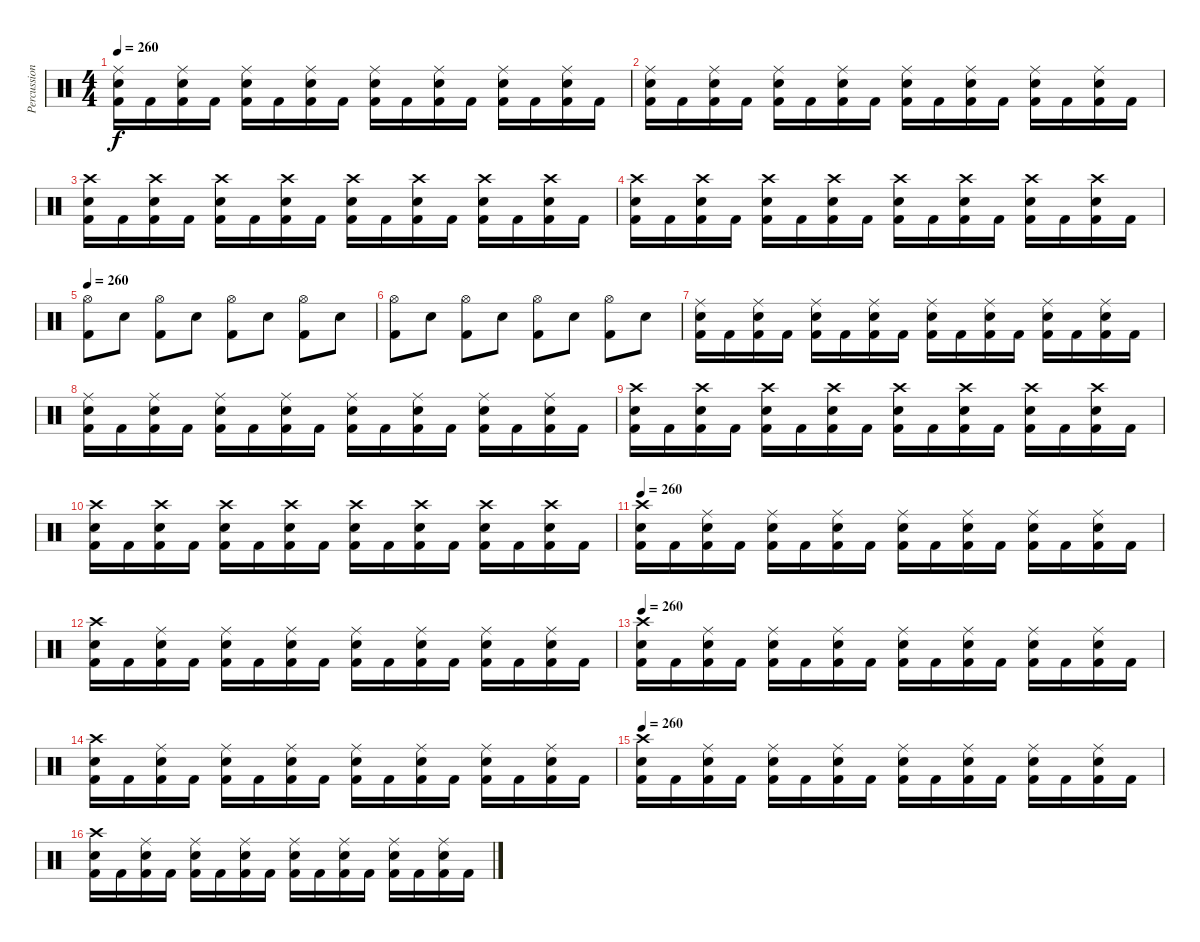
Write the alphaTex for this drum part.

\track ("Percussion" "Percussion") {instrument percussion}
\staff {score}
\articulation defaults
\ts (4 4)
\tempo 260
\clef neutral
\ks c
("Ride (middle)" "Electric Snare (hit)" "Kick (hit) 2").16{dy f} "Kick (hit) 2".16 ("Ride (middle)" "Electric Snare (hit)" "Kick (hit) 2").16 "Kick (hit) 2".16 ("Ride (middle)" "Electric Snare (hit)" "Kick (hit) 2").16 "Kick (hit) 2".16 ("Ride (middle)" "Electric Snare (hit)" "Kick (hit) 2").16 "Kick (hit) 2".16 ("Ride (middle)" "Electric Snare (hit)" "Kick (hit) 2").16 "Kick (hit) 2".16 ("Ride (middle)" "Electric Snare (hit)" "Kick (hit) 2").16 "Kick (hit) 2".16 ("Ride (middle)" "Electric Snare (hit)" "Kick (hit) 2").16 "Kick (hit) 2".16 ("Ride (middle)" "Electric Snare (hit)" "Kick (hit) 2").16 "Kick (hit) 2".16 |
("Ride (middle)" "Electric Snare (hit)" "Kick (hit) 2").16 "Kick (hit) 2".16 ("Ride (middle)" "Electric Snare (hit)" "Kick (hit) 2").16 "Kick (hit) 2".16 ("Ride (middle)" "Electric Snare (hit)" "Kick (hit) 2").16 "Kick (hit) 2".16 ("Ride (middle)" "Electric Snare (hit)" "Kick (hit) 2").16 "Kick (hit) 2".16 ("Ride (middle)" "Electric Snare (hit)" "Kick (hit) 2").16 "Kick (hit) 2".16 ("Ride (middle)" "Electric Snare (hit)" "Kick (hit) 2").16 "Kick (hit) 2".16 ("Ride (middle)" "Electric Snare (hit)" "Kick (hit) 2").16 "Kick (hit) 2".16 ("Ride (middle)" "Electric Snare (hit)" "Kick (hit) 2").16 "Kick (hit) 2".16 |
("Crash high (hit)" "Electric Snare (hit)" "Kick (hit) 2").16 "Kick (hit) 2".16 ("Crash high (hit)" "Electric Snare (hit)" "Kick (hit) 2").16 "Kick (hit) 2".16 ("Crash high (hit)" "Electric Snare (hit)" "Kick (hit) 2").16 "Kick (hit) 2".16 ("Crash high (hit)" "Electric Snare (hit)" "Kick (hit) 2").16 "Kick (hit) 2".16 ("Crash high (hit)" "Electric Snare (hit)" "Kick (hit) 2").16 "Kick (hit) 2".16 ("Crash high (hit)" "Electric Snare (hit)" "Kick (hit) 2").16 "Kick (hit) 2".16 ("Crash high (hit)" "Electric Snare (hit)" "Kick (hit) 2").16 "Kick (hit) 2".16 ("Crash high (hit)" "Electric Snare (hit)" "Kick (hit) 2").16 "Kick (hit) 2".16 |
("Crash high (hit)" "Electric Snare (hit)" "Kick (hit) 2").16 "Kick (hit) 2".16 ("Crash high (hit)" "Electric Snare (hit)" "Kick (hit) 2").16 "Kick (hit) 2".16 ("Crash high (hit)" "Electric Snare (hit)" "Kick (hit) 2").16 "Kick (hit) 2".16 ("Crash high (hit)" "Electric Snare (hit)" "Kick (hit) 2").16 "Kick (hit) 2".16 ("Crash high (hit)" "Electric Snare (hit)" "Kick (hit) 2").16 "Kick (hit) 2".16 ("Crash high (hit)" "Electric Snare (hit)" "Kick (hit) 2").16 "Kick (hit) 2".16 ("Crash high (hit)" "Electric Snare (hit)" "Kick (hit) 2").16 "Kick (hit) 2".16 ("Crash high (hit)" "Electric Snare (hit)" "Kick (hit) 2").16 "Kick (hit) 2".16 |
\tempo 260
("Hi-Hat (open)" "Kick (hit) 2").8 "Electric Snare (hit)".8 ("Hi-Hat (open)" "Kick (hit) 2").8 "Electric Snare (hit)".8 ("Hi-Hat (open)" "Kick (hit) 2").8 "Electric Snare (hit)".8 ("Hi-Hat (open)" "Kick (hit) 2").8 "Electric Snare (hit)".8 |
("Hi-Hat (open)" "Kick (hit) 2").8 "Electric Snare (hit)".8 ("Hi-Hat (open)" "Kick (hit) 2").8 "Electric Snare (hit)".8 ("Hi-Hat (open)" "Kick (hit) 2").8 "Electric Snare (hit)".8 ("Hi-Hat (open)" "Kick (hit) 2").8 "Electric Snare (hit)".8 |
("Ride (middle)" "Electric Snare (hit)" "Kick (hit) 2").16 "Kick (hit) 2".16 ("Ride (middle)" "Electric Snare (hit)" "Kick (hit) 2").16 "Kick (hit) 2".16 ("Ride (middle)" "Electric Snare (hit)" "Kick (hit) 2").16 "Kick (hit) 2".16 ("Ride (middle)" "Electric Snare (hit)" "Kick (hit) 2").16 "Kick (hit) 2".16 ("Ride (middle)" "Electric Snare (hit)" "Kick (hit) 2").16 "Kick (hit) 2".16 ("Ride (middle)" "Electric Snare (hit)" "Kick (hit) 2").16 "Kick (hit) 2".16 ("Ride (middle)" "Electric Snare (hit)" "Kick (hit) 2").16 "Kick (hit) 2".16 ("Ride (middle)" "Electric Snare (hit)" "Kick (hit) 2").16 "Kick (hit) 2".16 |
("Ride (middle)" "Electric Snare (hit)" "Kick (hit) 2").16 "Kick (hit) 2".16 ("Ride (middle)" "Electric Snare (hit)" "Kick (hit) 2").16 "Kick (hit) 2".16 ("Ride (middle)" "Electric Snare (hit)" "Kick (hit) 2").16 "Kick (hit) 2".16 ("Ride (middle)" "Electric Snare (hit)" "Kick (hit) 2").16 "Kick (hit) 2".16 ("Ride (middle)" "Electric Snare (hit)" "Kick (hit) 2").16 "Kick (hit) 2".16 ("Ride (middle)" "Electric Snare (hit)" "Kick (hit) 2").16 "Kick (hit) 2".16 ("Ride (middle)" "Electric Snare (hit)" "Kick (hit) 2").16 "Kick (hit) 2".16 ("Ride (middle)" "Electric Snare (hit)" "Kick (hit) 2").16 "Kick (hit) 2".16 |
("Crash high (hit)" "Electric Snare (hit)" "Kick (hit) 2").16 "Kick (hit) 2".16 ("Crash high (hit)" "Electric Snare (hit)" "Kick (hit) 2").16 "Kick (hit) 2".16 ("Crash high (hit)" "Electric Snare (hit)" "Kick (hit) 2").16 "Kick (hit) 2".16 ("Crash high (hit)" "Electric Snare (hit)" "Kick (hit) 2").16 "Kick (hit) 2".16 ("Crash high (hit)" "Electric Snare (hit)" "Kick (hit) 2").16 "Kick (hit) 2".16 ("Crash high (hit)" "Electric Snare (hit)" "Kick (hit) 2").16 "Kick (hit) 2".16 ("Crash high (hit)" "Electric Snare (hit)" "Kick (hit) 2").16 "Kick (hit) 2".16 ("Crash high (hit)" "Electric Snare (hit)" "Kick (hit) 2").16 "Kick (hit) 2".16 |
("Crash high (hit)" "Electric Snare (hit)" "Kick (hit) 2").16 "Kick (hit) 2".16 ("Crash high (hit)" "Electric Snare (hit)" "Kick (hit) 2").16 "Kick (hit) 2".16 ("Crash high (hit)" "Electric Snare (hit)" "Kick (hit) 2").16 "Kick (hit) 2".16 ("Crash high (hit)" "Electric Snare (hit)" "Kick (hit) 2").16 "Kick (hit) 2".16 ("Crash high (hit)" "Electric Snare (hit)" "Kick (hit) 2").16 "Kick (hit) 2".16 ("Crash high (hit)" "Electric Snare (hit)" "Kick (hit) 2").16 "Kick (hit) 2".16 ("Crash high (hit)" "Electric Snare (hit)" "Kick (hit) 2").16 "Kick (hit) 2".16 ("Crash high (hit)" "Electric Snare (hit)" "Kick (hit) 2").16 "Kick (hit) 2".16 |
\tempo 260
("Crash high (hit)" "Electric Snare (hit)" "Kick (hit) 2").16 "Kick (hit) 2".16 ("Ride (middle)" "Electric Snare (hit)" "Kick (hit) 2").16 "Kick (hit) 2".16 ("Ride (middle)" "Electric Snare (hit)" "Kick (hit) 2").16 "Kick (hit) 2".16 ("Ride (middle)" "Electric Snare (hit)" "Kick (hit) 2").16 "Kick (hit) 2".16 ("Ride (middle)" "Electric Snare (hit)" "Kick (hit) 2").16 "Kick (hit) 2".16 ("Ride (middle)" "Electric Snare (hit)" "Kick (hit) 2").16 "Kick (hit) 2".16 ("Ride (middle)" "Electric Snare (hit)" "Kick (hit) 2").16 "Kick (hit) 2".16 ("Ride (middle)" "Electric Snare (hit)" "Kick (hit) 2").16 "Kick (hit) 2".16 |
("Crash high (hit)" "Electric Snare (hit)" "Kick (hit) 2").16 "Kick (hit) 2".16 ("Ride (middle)" "Electric Snare (hit)" "Kick (hit) 2").16 "Kick (hit) 2".16 ("Ride (middle)" "Electric Snare (hit)" "Kick (hit) 2").16 "Kick (hit) 2".16 ("Ride (middle)" "Electric Snare (hit)" "Kick (hit) 2").16 "Kick (hit) 2".16 ("Ride (middle)" "Electric Snare (hit)" "Kick (hit) 2").16 "Kick (hit) 2".16 ("Ride (middle)" "Electric Snare (hit)" "Kick (hit) 2").16 "Kick (hit) 2".16 ("Ride (middle)" "Electric Snare (hit)" "Kick (hit) 2").16 "Kick (hit) 2".16 ("Ride (middle)" "Electric Snare (hit)" "Kick (hit) 2").16 "Kick (hit) 2".16 |
\tempo 260
("Crash high (hit)" "Electric Snare (hit)" "Kick (hit) 2").16 "Kick (hit) 2".16 ("Ride (middle)" "Electric Snare (hit)" "Kick (hit) 2").16 "Kick (hit) 2".16 ("Ride (middle)" "Electric Snare (hit)" "Kick (hit) 2").16 "Kick (hit) 2".16 ("Ride (middle)" "Electric Snare (hit)" "Kick (hit) 2").16 "Kick (hit) 2".16 ("Ride (middle)" "Electric Snare (hit)" "Kick (hit) 2").16 "Kick (hit) 2".16 ("Ride (middle)" "Electric Snare (hit)" "Kick (hit) 2").16 "Kick (hit) 2".16 ("Ride (middle)" "Electric Snare (hit)" "Kick (hit) 2").16 "Kick (hit) 2".16 ("Ride (middle)" "Electric Snare (hit)" "Kick (hit) 2").16 "Kick (hit) 2".16 |
("Crash high (hit)" "Electric Snare (hit)" "Kick (hit) 2").16 "Kick (hit) 2".16 ("Ride (middle)" "Electric Snare (hit)" "Kick (hit) 2").16 "Kick (hit) 2".16 ("Ride (middle)" "Electric Snare (hit)" "Kick (hit) 2").16 "Kick (hit) 2".16 ("Ride (middle)" "Electric Snare (hit)" "Kick (hit) 2").16 "Kick (hit) 2".16 ("Ride (middle)" "Electric Snare (hit)" "Kick (hit) 2").16 "Kick (hit) 2".16 ("Ride (middle)" "Electric Snare (hit)" "Kick (hit) 2").16 "Kick (hit) 2".16 ("Ride (middle)" "Electric Snare (hit)" "Kick (hit) 2").16 "Kick (hit) 2".16 ("Ride (middle)" "Electric Snare (hit)" "Kick (hit) 2").16 "Kick (hit) 2".16 |
\tempo 260
("Crash high (hit)" "Electric Snare (hit)" "Kick (hit) 2").16 "Kick (hit) 2".16 ("Ride (middle)" "Electric Snare (hit)" "Kick (hit) 2").16 "Kick (hit) 2".16 ("Ride (middle)" "Electric Snare (hit)" "Kick (hit) 2").16 "Kick (hit) 2".16 ("Ride (middle)" "Electric Snare (hit)" "Kick (hit) 2").16 "Kick (hit) 2".16 ("Ride (middle)" "Electric Snare (hit)" "Kick (hit) 2").16 "Kick (hit) 2".16 ("Ride (middle)" "Electric Snare (hit)" "Kick (hit) 2").16 "Kick (hit) 2".16 ("Ride (middle)" "Electric Snare (hit)" "Kick (hit) 2").16 "Kick (hit) 2".16 ("Ride (middle)" "Electric Snare (hit)" "Kick (hit) 2").16 "Kick (hit) 2".16 |
("Crash high (hit)" "Electric Snare (hit)" "Kick (hit) 2").16 "Kick (hit) 2".16 ("Ride (middle)" "Electric Snare (hit)" "Kick (hit) 2").16 "Kick (hit) 2".16 ("Ride (middle)" "Electric Snare (hit)" "Kick (hit) 2").16 "Kick (hit) 2".16 ("Ride (middle)" "Electric Snare (hit)" "Kick (hit) 2").16 "Kick (hit) 2".16 ("Ride (middle)" "Electric Snare (hit)" "Kick (hit) 2").16 "Kick (hit) 2".16 ("Ride (middle)" "Electric Snare (hit)" "Kick (hit) 2").16 "Kick (hit) 2".16 ("Ride (middle)" "Electric Snare (hit)" "Kick (hit) 2").16 "Kick (hit) 2".16 ("Ride (middle)" "Electric Snare (hit)" "Kick (hit) 2").16 "Kick (hit) 2".16
